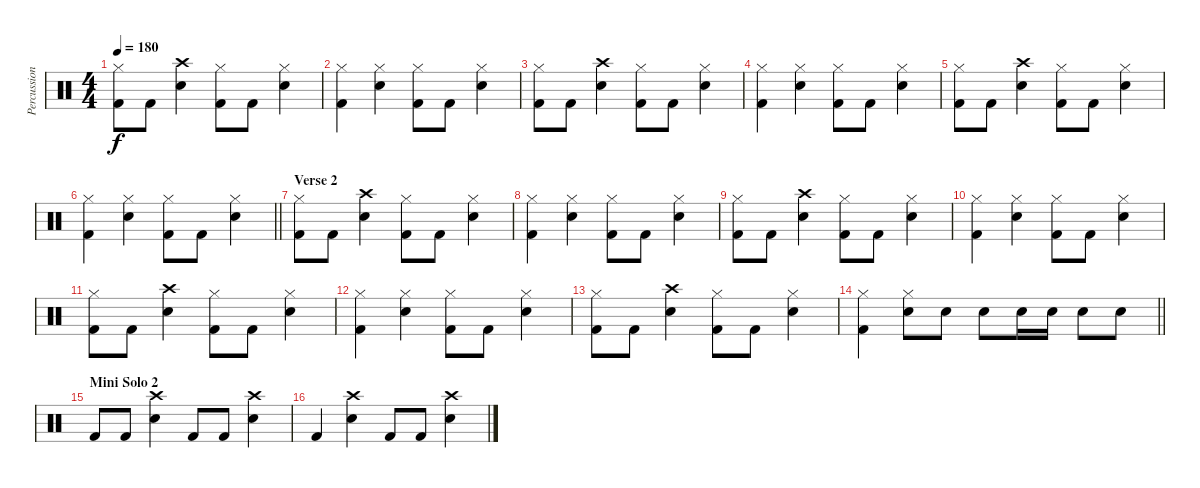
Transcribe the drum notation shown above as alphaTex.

\track ("Percussion" "Percussion") {instrument percussion}
\staff {score}
\articulation defaults
\ts (4 4)
\tempo 180
\clef neutral
\ks c
("Hi-Hat (closed)" "Kick (hit) 2").8{dy f} "Kick (hit) 2".8 ("Crash high (hit)" "Snare (hit) 2").4 ("Hi-Hat (closed)" "Kick (hit) 2").8 "Kick (hit) 2".8 ("Hi-Hat (closed)" "Snare (hit) 2").4 |
("Hi-Hat (closed)" "Kick (hit) 2").4 ("Hi-Hat (closed)" "Snare (hit) 2").4 ("Hi-Hat (closed)" "Kick (hit) 2").8 "Kick (hit) 2".8 ("Hi-Hat (closed)" "Snare (hit) 2").4 |
("Hi-Hat (closed)" "Kick (hit) 2").8 "Kick (hit) 2".8 ("Crash high (hit)" "Snare (hit) 2").4 ("Hi-Hat (closed)" "Kick (hit) 2").8 "Kick (hit) 2".8 ("Hi-Hat (closed)" "Snare (hit) 2").4 |
("Hi-Hat (closed)" "Kick (hit) 2").4 ("Hi-Hat (closed)" "Snare (hit) 2").4 ("Hi-Hat (closed)" "Kick (hit) 2").8 "Kick (hit) 2".8 ("Hi-Hat (closed)" "Snare (hit) 2").4 |
("Hi-Hat (closed)" "Kick (hit) 2").8 "Kick (hit) 2".8 ("Crash high (hit)" "Snare (hit) 2").4 ("Hi-Hat (closed)" "Kick (hit) 2").8 "Kick (hit) 2".8 ("Hi-Hat (closed)" "Snare (hit) 2").4 |
\barLineRight lightlight
("Hi-Hat (closed)" "Kick (hit) 2").4 ("Hi-Hat (closed)" "Snare (hit) 2").4 ("Hi-Hat (closed)" "Kick (hit) 2").8 "Kick (hit) 2".8 ("Hi-Hat (closed)" "Snare (hit) 2").4 |
\section ("" "Verse 2")
("Hi-Hat (closed)" "Kick (hit) 2").8 "Kick (hit) 2".8 ("Crash high (hit)" "Snare (hit) 2").4 ("Hi-Hat (closed)" "Kick (hit) 2").8 "Kick (hit) 2".8 ("Hi-Hat (closed)" "Snare (hit) 2").4 |
("Hi-Hat (closed)" "Kick (hit) 2").4 ("Hi-Hat (closed)" "Snare (hit) 2").4 ("Hi-Hat (closed)" "Kick (hit) 2").8 "Kick (hit) 2".8 ("Hi-Hat (closed)" "Snare (hit) 2").4 |
("Hi-Hat (closed)" "Kick (hit) 2").8 "Kick (hit) 2".8 ("Crash high (hit)" "Snare (hit) 2").4 ("Hi-Hat (closed)" "Kick (hit) 2").8 "Kick (hit) 2".8 ("Hi-Hat (closed)" "Snare (hit) 2").4 |
("Hi-Hat (closed)" "Kick (hit) 2").4 ("Hi-Hat (closed)" "Snare (hit) 2").4 ("Hi-Hat (closed)" "Kick (hit) 2").8 "Kick (hit) 2".8 ("Hi-Hat (closed)" "Snare (hit) 2").4 |
("Hi-Hat (closed)" "Kick (hit) 2").8 "Kick (hit) 2".8 ("Crash high (hit)" "Snare (hit) 2").4 ("Hi-Hat (closed)" "Kick (hit) 2").8 "Kick (hit) 2".8 ("Hi-Hat (closed)" "Snare (hit) 2").4 |
("Hi-Hat (closed)" "Kick (hit) 2").4 ("Hi-Hat (closed)" "Snare (hit) 2").4 ("Hi-Hat (closed)" "Kick (hit) 2").8 "Kick (hit) 2".8 ("Hi-Hat (closed)" "Snare (hit) 2").4 |
("Hi-Hat (closed)" "Kick (hit) 2").8 "Kick (hit) 2".8 ("Crash high (hit)" "Snare (hit) 2").4 ("Hi-Hat (closed)" "Kick (hit) 2").8 "Kick (hit) 2".8 ("Hi-Hat (closed)" "Snare (hit) 2").4 |
\barLineRight lightlight
("Hi-Hat (closed)" "Kick (hit) 2").4 ("Hi-Hat (closed)" "Snare (hit) 2").8 "Snare (hit) 2".8 "Snare (hit) 2".8 "Snare (hit) 2".16 "Snare (hit) 2".16 "Snare (hit) 2".8 "Snare (hit) 2".8 |
\section ("" "Mini Solo 2")
"Kick (hit) 2".8 "Kick (hit) 2".8 ("Crash high (hit)" "Snare (hit) 2").4 "Kick (hit) 2".8 "Kick (hit) 2".8 ("Crash high (hit)" "Snare (hit) 2").4 |
"Kick (hit) 2".4 ("Crash high (hit)" "Snare (hit) 2").4 "Kick (hit) 2".8 "Kick (hit) 2".8 ("Crash high (hit)" "Snare (hit) 2").4
